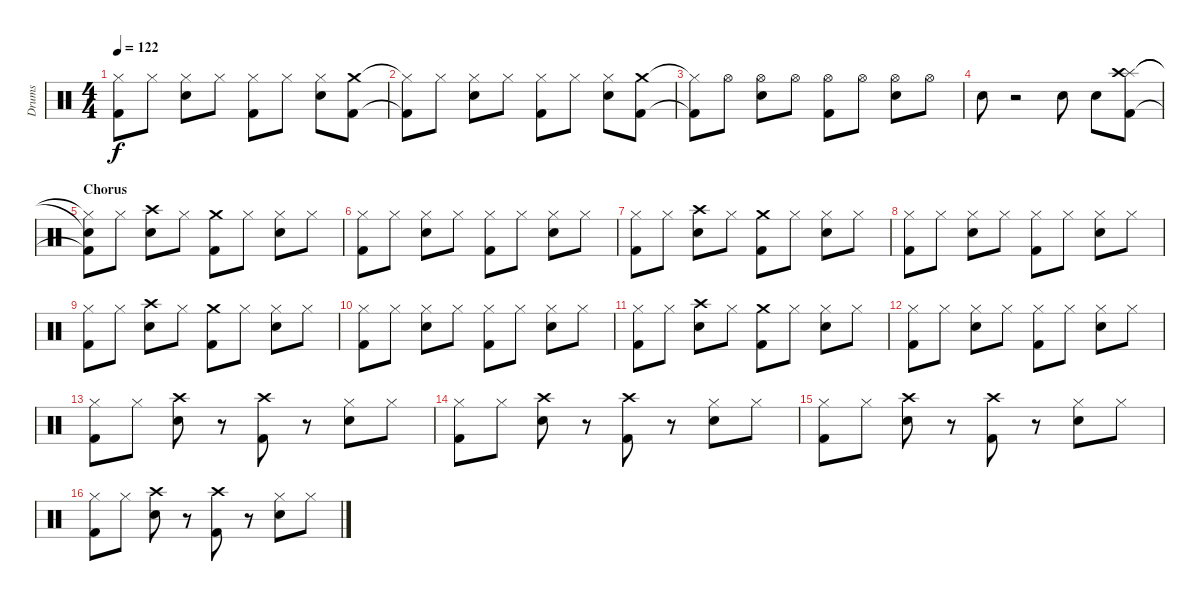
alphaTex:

\track ("Drums" "Drums") {instrument percussion}
\staff {score}
\articulation defaults
\ts (4 4)
\tempo 122
\clef neutral
\ks c
("Hi-Hat (closed)"{t} "Kick (hit) 2"{t}).8{dy f} "Hi-Hat (closed)".8 ("Hi-Hat (closed)" "Electric Snare (hit)").8 "Hi-Hat (closed)".8 ("Hi-Hat (closed)" "Kick (hit) 2").8 "Hi-Hat (closed)".8 ("Hi-Hat (closed)" "Electric Snare (hit)").8 ("Crash medium (hit)" "Kick (hit) 2").8 |
("Hi-Hat (closed)"{t} "Kick (hit) 2"{t}).8 "Hi-Hat (closed)".8 ("Hi-Hat (closed)" "Electric Snare (hit)").8 "Hi-Hat (closed)".8 ("Hi-Hat (closed)" "Kick (hit) 2").8 "Hi-Hat (closed)".8 ("Hi-Hat (closed)" "Electric Snare (hit)").8 ("Crash medium (hit)" "Kick (hit) 2").8 |
("Hi-Hat (closed)"{t} "Kick (hit) 2"{t}).8 "Hi-Hat (open)".8 ("Hi-Hat (open)" "Electric Snare (hit)").8 "Hi-Hat (open)".8 ("Hi-Hat (open)" "Kick (hit) 2").8 "Hi-Hat (open)".8 ("Hi-Hat (open)" "Electric Snare (hit)").8 "Hi-Hat (open)".8 |
"Electric Snare (hit)".8 r.2 "Electric Snare (hit)".8 "Electric Snare (hit)".8 ("Splash (hit)" "Crash high (hit)" "Kick (hit) 2").8 |
\section ("" "Chorus")
("Hi-Hat (closed)"{t} "Snare (hit)"{t} "Kick (hit) 2"{t}).8 "Hi-Hat (closed)".8 ("Crash high (hit)" "Electric Snare (hit)").8 "Hi-Hat (closed)".8 ("Crash medium (hit)" "Kick (hit) 2").8 "Hi-Hat (closed)".8 ("Hi-Hat (closed)" "Electric Snare (hit)").8 "Hi-Hat (closed)".8 |
("Hi-Hat (closed)" "Kick (hit) 2").8 "Hi-Hat (closed)".8 ("Hi-Hat (closed)" "Electric Snare (hit)").8 "Hi-Hat (closed)".8 ("Hi-Hat (closed)" "Kick (hit) 2").8 "Hi-Hat (closed)".8 ("Hi-Hat (closed)" "Electric Snare (hit)").8 "Hi-Hat (closed)".8 |
("Hi-Hat (closed)" "Kick (hit) 2").8 "Hi-Hat (closed)".8 ("Crash high (hit)" "Electric Snare (hit)").8 "Hi-Hat (closed)".8 ("Crash medium (hit)" "Kick (hit) 2").8 "Hi-Hat (closed)".8 ("Hi-Hat (closed)" "Electric Snare (hit)").8 "Hi-Hat (closed)".8 |
("Hi-Hat (closed)" "Kick (hit) 2").8 "Hi-Hat (closed)".8 ("Hi-Hat (closed)" "Electric Snare (hit)").8 "Hi-Hat (closed)".8 ("Hi-Hat (closed)" "Kick (hit) 2").8 "Hi-Hat (closed)".8 ("Hi-Hat (closed)" "Electric Snare (hit)").8 "Hi-Hat (closed)".8 |
("Hi-Hat (closed)" "Kick (hit) 2").8 "Hi-Hat (closed)".8 ("Crash high (hit)" "Electric Snare (hit)").8 "Hi-Hat (closed)".8 ("Crash medium (hit)" "Kick (hit) 2").8 "Hi-Hat (closed)".8 ("Hi-Hat (closed)" "Electric Snare (hit)").8 "Hi-Hat (closed)".8 |
("Hi-Hat (closed)" "Kick (hit) 2").8 "Hi-Hat (closed)".8 ("Hi-Hat (closed)" "Electric Snare (hit)").8 "Hi-Hat (closed)".8 ("Hi-Hat (closed)" "Kick (hit) 2").8 "Hi-Hat (closed)".8 ("Hi-Hat (closed)" "Electric Snare (hit)").8 "Hi-Hat (closed)".8 |
("Hi-Hat (closed)" "Kick (hit) 2").8 "Hi-Hat (closed)".8 ("Crash high (hit)" "Electric Snare (hit)").8 "Hi-Hat (closed)".8 ("Crash medium (hit)" "Kick (hit) 2").8 "Hi-Hat (closed)".8 ("Hi-Hat (closed)" "Electric Snare (hit)").8 "Hi-Hat (closed)".8 |
("Hi-Hat (closed)" "Kick (hit) 2").8 "Hi-Hat (closed)".8 ("Hi-Hat (closed)" "Electric Snare (hit)").8 "Hi-Hat (closed)".8 ("Hi-Hat (closed)" "Kick (hit) 2").8 "Hi-Hat (closed)".8 ("Hi-Hat (closed)" "Electric Snare (hit)").8 "Hi-Hat (closed)".8 |
("Hi-Hat (closed)" "Kick (hit) 2").8 "Hi-Hat (closed)".8 ("Crash high (hit)" "Electric Snare (hit)").8 r.8 ("Crash high (hit)" "Kick (hit) 2").8 r.8 ("Hi-Hat (closed)" "Electric Snare (hit)").8 "Hi-Hat (closed)".8 |
("Hi-Hat (closed)" "Kick (hit) 2").8 "Hi-Hat (closed)".8 ("Crash high (hit)" "Electric Snare (hit)").8 r.8 ("Crash high (hit)" "Kick (hit) 2").8 r.8 ("Hi-Hat (closed)" "Electric Snare (hit)").8 "Hi-Hat (closed)".8 |
("Hi-Hat (closed)" "Kick (hit) 2").8 "Hi-Hat (closed)".8 ("Crash high (hit)" "Electric Snare (hit)").8 r.8 ("Crash high (hit)" "Kick (hit) 2").8 r.8 ("Hi-Hat (closed)" "Electric Snare (hit)").8 "Hi-Hat (closed)".8 |
("Hi-Hat (closed)" "Kick (hit) 2").8 "Hi-Hat (closed)".8 ("Crash high (hit)" "Electric Snare (hit)").8 r.8 ("Crash high (hit)" "Kick (hit) 2").8 r.8 ("Hi-Hat (closed)" "Electric Snare (hit)").8 "Hi-Hat (closed)".8
